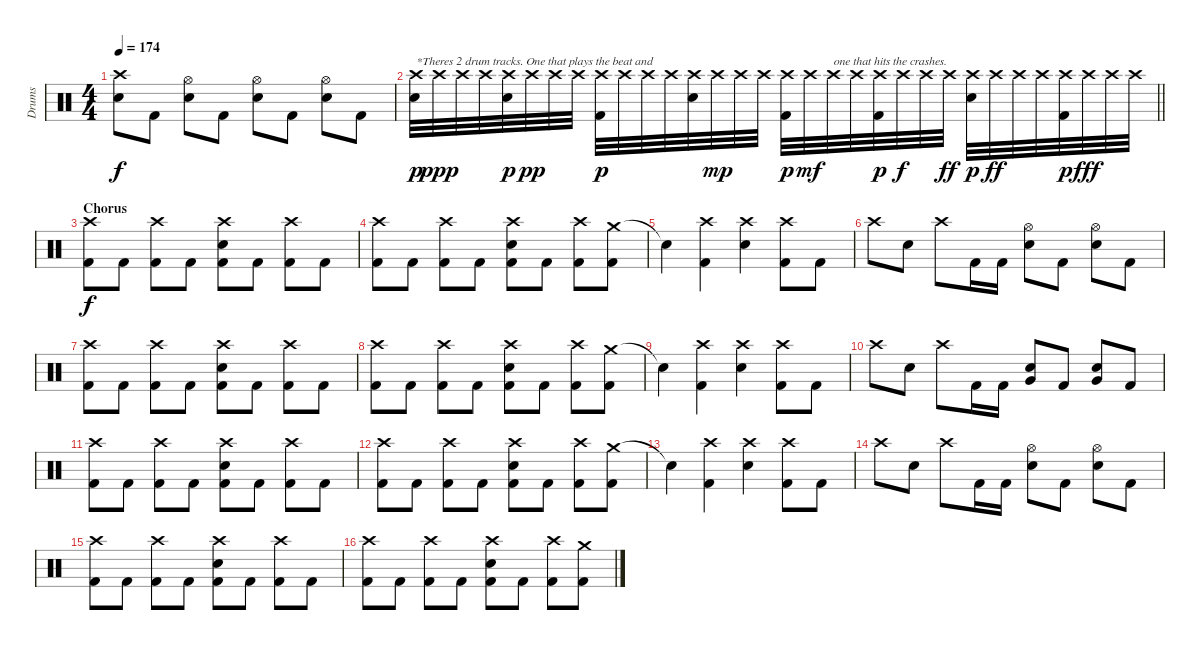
\track ("Drums" "Drums") {instrument percussion}
\staff {score}
\articulation defaults
\ts (4 4)
\tempo 174
\clef neutral
\ks c
("Crash high (hit)" "Electric Snare (hit)").8{dy f} "Kick (hit) 2".8 ("Hi-Hat (open)" "Electric Snare (hit)").8 "Kick (hit) 2".8 ("Hi-Hat (open)" "Electric Snare (hit)").8 "Kick (hit) 2".8 ("Hi-Hat (open)" "Electric Snare (hit)").8 "Kick (hit) 2".8 |
\barLineRight lightlight
("Crash high (hit)" "Electric Snare (hit)").32{txt "*Theres 2 drum tracks. One that plays the beat and" dy p volume 16} "Crash high (hit)".32{dy ppp} "Crash high (hit)".32 "Crash high (hit)".32 ("Crash high (hit)" "Electric Snare (hit)").32{dy p} "Crash high (hit)".32{dy pp} "Crash high (hit)".32 "Crash high (hit)".32 ("Crash high (hit)" "Kick (hit) 2").32{dy p} "Crash high (hit)".32 "Crash high (hit)".32 "Crash high (hit)".32 ("Crash high (hit)" "Electric Snare (hit)").32 "Crash high (hit)".32{dy mp} "Crash high (hit)".32 "Crash high (hit)".32 ("Crash high (hit)" "Kick (hit) 2").32{dy p} "Crash high (hit)".32{dy mf} "Crash high (hit)".32{txt "one that hits the crashes."} "Crash high (hit)".32 ("Crash high (hit)" "Kick (hit) 2").32{dy p} "Crash high (hit)".32{dy f} "Crash high (hit)".32 "Crash high (hit)".32{dy ff} ("Crash high (hit)" "Electric Snare (hit)").32{dy p} "Crash high (hit)".32{dy ff} "Crash high (hit)".32 "Crash high (hit)".32 ("Crash high (hit)" "Kick (hit) 2").32{dy p} "Crash high (hit)".32{dy fff} "Crash high (hit)".32 "Crash high (hit)".32 |
\section ("" "Chorus")
("Crash high (hit)" "Kick (hit) 2").8{dy f volume 16} "Kick (hit) 2".8 ("Crash high (hit)" "Kick (hit) 2").8 "Kick (hit) 2".8 ("Crash high (hit)" "Electric Snare (hit)" "Kick (hit) 2").8 "Kick (hit) 2".8 ("Crash high (hit)" "Kick (hit) 2").8 "Kick (hit) 2".8 |
("Crash high (hit)" "Kick (hit) 2").8 "Kick (hit) 2".8 ("Crash high (hit)" "Kick (hit) 2").8 "Kick (hit) 2".8 ("Crash high (hit)" "Electric Snare (hit)" "Kick (hit) 2").8 "Kick (hit) 2".8 ("Crash high (hit)" "Kick (hit) 2").8 ("Crash medium (hit)" "Kick (hit) 2").8 |
"Snare (hit)"{t}.4 ("Crash high (hit)" "Kick (hit) 2").4 ("Crash high (hit)" "Electric Snare (hit)").4 ("Crash high (hit)" "Kick (hit) 2").8 "Kick (hit) 2".8 |
"Crash high (hit)".8 "Electric Snare (hit)".8 "Crash high (hit)".8 "Kick (hit) 2".16 "Kick (hit) 2".16 ("Hi-Hat (open)" "Electric Snare (hit)").8 "Kick (hit) 2".8 ("Hi-Hat (open)" "Electric Snare (hit)").8 "Kick (hit) 2".8 |
("Crash high (hit)" "Kick (hit) 2").8 "Kick (hit) 2".8 ("Crash high (hit)" "Kick (hit) 2").8 "Kick (hit) 2".8 ("Crash high (hit)" "Electric Snare (hit)" "Kick (hit) 2").8 "Kick (hit) 2".8 ("Crash high (hit)" "Kick (hit) 2").8 "Kick (hit) 2".8 |
("Crash high (hit)" "Kick (hit) 2").8 "Kick (hit) 2".8 ("Crash high (hit)" "Kick (hit) 2").8 "Kick (hit) 2".8 ("Crash high (hit)" "Electric Snare (hit)" "Kick (hit) 2").8 "Kick (hit) 2".8 ("Crash high (hit)" "Kick (hit) 2").8 ("Crash medium (hit)" "Kick (hit) 2").8 |
"Snare (hit)"{t}.4 ("Crash high (hit)" "Kick (hit) 2").4 ("Crash high (hit)" "Electric Snare (hit)").4 ("Crash high (hit)" "Kick (hit) 2").8 "Kick (hit) 2".8 |
"Crash high (hit)".8 "Electric Snare (hit)".8 "Crash high (hit)".8 "Kick (hit) 2".16 "Kick (hit) 2".16 ("Very Low Tom (hit)" "Electric Snare (hit)").8 "Kick (hit) 2".8 ("Very Low Tom (hit)" "Electric Snare (hit)").8 "Kick (hit) 2".8 |
("Crash high (hit)" "Kick (hit) 2").8 "Kick (hit) 2".8 ("Crash high (hit)" "Kick (hit) 2").8 "Kick (hit) 2".8 ("Crash high (hit)" "Electric Snare (hit)" "Kick (hit) 2").8 "Kick (hit) 2".8 ("Crash high (hit)" "Kick (hit) 2").8 "Kick (hit) 2".8 |
("Crash high (hit)" "Kick (hit) 2").8 "Kick (hit) 2".8 ("Crash high (hit)" "Kick (hit) 2").8 "Kick (hit) 2".8 ("Crash high (hit)" "Electric Snare (hit)" "Kick (hit) 2").8 "Kick (hit) 2".8 ("Crash high (hit)" "Kick (hit) 2").8 ("Crash medium (hit)" "Kick (hit) 2").8 |
"Snare (hit)"{t}.4 ("Crash high (hit)" "Kick (hit) 2").4 ("Crash high (hit)" "Electric Snare (hit)").4 ("Crash high (hit)" "Kick (hit) 2").8 "Kick (hit) 2".8 |
"Crash high (hit)".8 "Electric Snare (hit)".8 "Crash high (hit)".8 "Kick (hit) 2".16 "Kick (hit) 2".16 ("Hi-Hat (open)" "Electric Snare (hit)").8 "Kick (hit) 2".8 ("Hi-Hat (open)" "Electric Snare (hit)").8 "Kick (hit) 2".8 |
("Crash high (hit)" "Kick (hit) 2").8 "Kick (hit) 2".8 ("Crash high (hit)" "Kick (hit) 2").8 "Kick (hit) 2".8 ("Crash high (hit)" "Electric Snare (hit)" "Kick (hit) 2").8 "Kick (hit) 2".8 ("Crash high (hit)" "Kick (hit) 2").8 "Kick (hit) 2".8 |
("Crash high (hit)" "Kick (hit) 2").8 "Kick (hit) 2".8 ("Crash high (hit)" "Kick (hit) 2").8 "Kick (hit) 2".8 ("Crash high (hit)" "Electric Snare (hit)" "Kick (hit) 2").8 "Kick (hit) 2".8 ("Crash high (hit)" "Kick (hit) 2").8 ("Crash medium (hit)" "Kick (hit) 2").8
